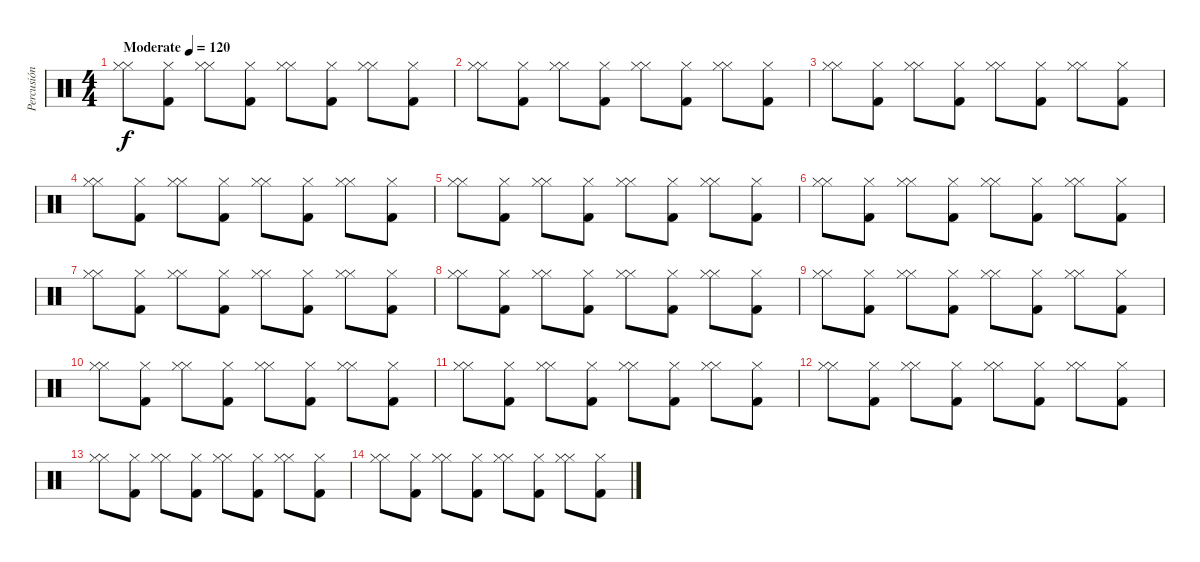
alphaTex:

\track ("Percusión" "Percusión") {instrument percussion}
\staff
\articulation defaults
\ts (4 4)
\tempo (120 "Moderate")
\clef neutral
\ks c
("Hi-Hat (closed)" "Hi-Hat (closed)").8{dy f} ("Hi-Hat (closed)" "Kick (hit) 2").8 ("Hi-Hat (closed)" "Hi-Hat (closed)").8 ("Hi-Hat (closed)" "Kick (hit) 2").8 ("Hi-Hat (closed)" "Hi-Hat (closed)").8 ("Hi-Hat (closed)" "Kick (hit) 2").8 ("Hi-Hat (closed)" "Hi-Hat (closed)").8 ("Hi-Hat (closed)" "Kick (hit) 2").8 |
("Hi-Hat (closed)" "Hi-Hat (closed)").8 ("Hi-Hat (closed)" "Kick (hit) 2").8 ("Hi-Hat (closed)" "Hi-Hat (closed)").8 ("Hi-Hat (closed)" "Kick (hit) 2").8 ("Hi-Hat (closed)" "Hi-Hat (closed)").8 ("Hi-Hat (closed)" "Kick (hit) 2").8 ("Hi-Hat (closed)" "Hi-Hat (closed)").8 ("Hi-Hat (closed)" "Kick (hit) 2").8 |
("Hi-Hat (closed)" "Hi-Hat (closed)").8 ("Hi-Hat (closed)" "Kick (hit) 2").8 ("Hi-Hat (closed)" "Hi-Hat (closed)").8 ("Hi-Hat (closed)" "Kick (hit) 2").8 ("Hi-Hat (closed)" "Hi-Hat (closed)").8 ("Hi-Hat (closed)" "Kick (hit) 2").8 ("Hi-Hat (closed)" "Hi-Hat (closed)").8 ("Hi-Hat (closed)" "Kick (hit) 2").8 |
("Hi-Hat (closed)" "Hi-Hat (closed)").8 ("Hi-Hat (closed)" "Kick (hit) 2").8 ("Hi-Hat (closed)" "Hi-Hat (closed)").8 ("Hi-Hat (closed)" "Kick (hit) 2").8 ("Hi-Hat (closed)" "Hi-Hat (closed)").8 ("Hi-Hat (closed)" "Kick (hit) 2").8 ("Hi-Hat (closed)" "Hi-Hat (closed)").8 ("Hi-Hat (closed)" "Kick (hit) 2").8 |
("Hi-Hat (closed)" "Hi-Hat (closed)").8 ("Hi-Hat (closed)" "Kick (hit) 2").8 ("Hi-Hat (closed)" "Hi-Hat (closed)").8 ("Hi-Hat (closed)" "Kick (hit) 2").8 ("Hi-Hat (closed)" "Hi-Hat (closed)").8 ("Hi-Hat (closed)" "Kick (hit) 2").8 ("Hi-Hat (closed)" "Hi-Hat (closed)").8 ("Hi-Hat (closed)" "Kick (hit) 2").8 |
("Hi-Hat (closed)" "Hi-Hat (closed)").8 ("Hi-Hat (closed)" "Kick (hit) 2").8 ("Hi-Hat (closed)" "Hi-Hat (closed)").8 ("Hi-Hat (closed)" "Kick (hit) 2").8 ("Hi-Hat (closed)" "Hi-Hat (closed)").8 ("Hi-Hat (closed)" "Kick (hit) 2").8 ("Hi-Hat (closed)" "Hi-Hat (closed)").8 ("Hi-Hat (closed)" "Kick (hit) 2").8 |
("Hi-Hat (closed)" "Hi-Hat (closed)").8 ("Hi-Hat (closed)" "Kick (hit) 2").8 ("Hi-Hat (closed)" "Hi-Hat (closed)").8 ("Hi-Hat (closed)" "Kick (hit) 2").8 ("Hi-Hat (closed)" "Hi-Hat (closed)").8 ("Hi-Hat (closed)" "Kick (hit) 2").8 ("Hi-Hat (closed)" "Hi-Hat (closed)").8 ("Hi-Hat (closed)" "Kick (hit) 2").8 |
("Hi-Hat (closed)" "Hi-Hat (closed)").8 ("Hi-Hat (closed)" "Kick (hit) 2").8 ("Hi-Hat (closed)" "Hi-Hat (closed)").8 ("Hi-Hat (closed)" "Kick (hit) 2").8 ("Hi-Hat (closed)" "Hi-Hat (closed)").8 ("Hi-Hat (closed)" "Kick (hit) 2").8 ("Hi-Hat (closed)" "Hi-Hat (closed)").8 ("Hi-Hat (closed)" "Kick (hit) 2").8 |
("Hi-Hat (closed)" "Hi-Hat (closed)").8 ("Hi-Hat (closed)" "Kick (hit) 2").8 ("Hi-Hat (closed)" "Hi-Hat (closed)").8 ("Hi-Hat (closed)" "Kick (hit) 2").8 ("Hi-Hat (closed)" "Hi-Hat (closed)").8 ("Hi-Hat (closed)" "Kick (hit) 2").8 ("Hi-Hat (closed)" "Hi-Hat (closed)").8 ("Hi-Hat (closed)" "Kick (hit) 2").8 |
("Hi-Hat (closed)" "Hi-Hat (closed)").8 ("Hi-Hat (closed)" "Kick (hit) 2").8 ("Hi-Hat (closed)" "Hi-Hat (closed)").8 ("Hi-Hat (closed)" "Kick (hit) 2").8 ("Hi-Hat (closed)" "Hi-Hat (closed)").8 ("Hi-Hat (closed)" "Kick (hit) 2").8 ("Hi-Hat (closed)" "Hi-Hat (closed)").8 ("Hi-Hat (closed)" "Kick (hit) 2").8 |
("Hi-Hat (closed)" "Hi-Hat (closed)").8 ("Hi-Hat (closed)" "Kick (hit) 2").8 ("Hi-Hat (closed)" "Hi-Hat (closed)").8 ("Hi-Hat (closed)" "Kick (hit) 2").8 ("Hi-Hat (closed)" "Hi-Hat (closed)").8 ("Hi-Hat (closed)" "Kick (hit) 2").8 ("Hi-Hat (closed)" "Hi-Hat (closed)").8 ("Hi-Hat (closed)" "Kick (hit) 2").8 |
("Hi-Hat (closed)" "Hi-Hat (closed)").8 ("Hi-Hat (closed)" "Kick (hit) 2").8 ("Hi-Hat (closed)" "Hi-Hat (closed)").8 ("Hi-Hat (closed)" "Kick (hit) 2").8 ("Hi-Hat (closed)" "Hi-Hat (closed)").8 ("Hi-Hat (closed)" "Kick (hit) 2").8 ("Hi-Hat (closed)" "Hi-Hat (closed)").8 ("Hi-Hat (closed)" "Kick (hit) 2").8 |
("Hi-Hat (closed)" "Hi-Hat (closed)").8 ("Hi-Hat (closed)" "Kick (hit) 2").8 ("Hi-Hat (closed)" "Hi-Hat (closed)").8 ("Hi-Hat (closed)" "Kick (hit) 2").8 ("Hi-Hat (closed)" "Hi-Hat (closed)").8 ("Hi-Hat (closed)" "Kick (hit) 2").8 ("Hi-Hat (closed)" "Hi-Hat (closed)").8 ("Hi-Hat (closed)" "Kick (hit) 2").8 |
("Hi-Hat (closed)" "Hi-Hat (closed)").8 ("Hi-Hat (closed)" "Kick (hit) 2").8 ("Hi-Hat (closed)" "Hi-Hat (closed)").8 ("Hi-Hat (closed)" "Kick (hit) 2").8 ("Hi-Hat (closed)" "Hi-Hat (closed)").8 ("Hi-Hat (closed)" "Kick (hit) 2").8 ("Hi-Hat (closed)" "Hi-Hat (closed)").8 ("Hi-Hat (closed)" "Kick (hit) 2").8
